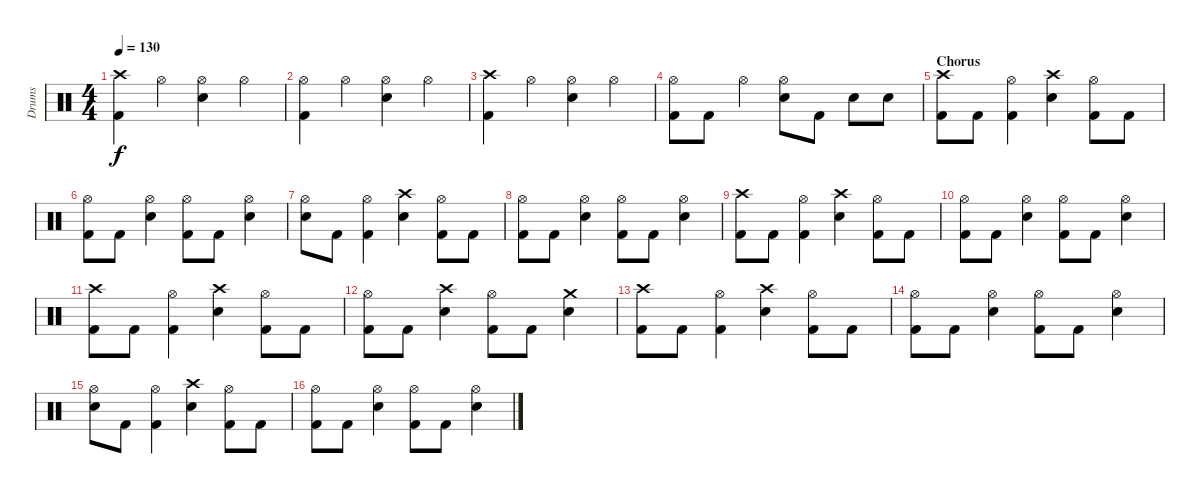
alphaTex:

\track ("Drums" "Drums") {instrument percussion}
\staff {score}
\articulation defaults
\ts (4 4)
\tempo 130
\clef neutral
\ks c
("Crash high (hit)" "Kick (hit) 2").4{dy f} "Hi-Hat (open)".4 ("Hi-Hat (open)" "Snare (hit) 2").4 "Hi-Hat (open)".4 |
("Hi-Hat (open)" "Kick (hit) 2").4 "Hi-Hat (open)".4 ("Hi-Hat (open)" "Snare (hit) 2").4 "Hi-Hat (open)".4 |
("Crash high (hit)" "Kick (hit) 2").4 "Hi-Hat (open)".4 ("Hi-Hat (open)" "Snare (hit) 2").4 "Hi-Hat (open)".4 |
("Hi-Hat (open)" "Kick (hit) 2").8 "Kick (hit) 2".8 "Hi-Hat (open)".4 ("Hi-Hat (open)" "Snare (hit) 2").8 "Kick (hit) 2".8 "Snare (hit) 2".8 "Snare (hit) 2".8 |
\section ("" "Chorus")
("Crash high (hit)" "Kick (hit) 2").8 "Kick (hit) 2".8 ("Hi-Hat (open)" "Kick (hit) 2").4 ("Crash high (hit)" "Snare (hit) 2").4 ("Hi-Hat (open)" "Kick (hit) 2").8 "Kick (hit) 2".8 |
("Hi-Hat (open)" "Kick (hit) 2").8 "Kick (hit) 2".8 ("Hi-Hat (open)" "Snare (hit) 2").4 ("Hi-Hat (open)" "Kick (hit) 2").8 "Kick (hit) 2".8 ("Hi-Hat (open)" "Snare (hit) 2").4 |
("Hi-Hat (open)" "Snare (hit) 2").8 "Kick (hit) 2".8 ("Hi-Hat (open)" "Kick (hit) 2").4 ("Crash high (hit)" "Snare (hit) 2").4 ("Hi-Hat (open)" "Kick (hit) 2").8 "Kick (hit) 2".8 |
("Hi-Hat (open)" "Kick (hit) 2").8 "Kick (hit) 2".8 ("Hi-Hat (open)" "Snare (hit) 2").4 ("Hi-Hat (open)" "Kick (hit) 2").8 "Kick (hit) 2".8 ("Hi-Hat (open)" "Snare (hit) 2").4 |
("Crash high (hit)" "Kick (hit) 2").8 "Kick (hit) 2".8 ("Hi-Hat (open)" "Kick (hit) 2").4 ("Crash high (hit)" "Snare (hit) 2").4 ("Hi-Hat (open)" "Kick (hit) 2").8 "Kick (hit) 2".8 |
("Hi-Hat (open)" "Kick (hit) 2").8 "Kick (hit) 2".8 ("Hi-Hat (open)" "Snare (hit) 2").4 ("Hi-Hat (open)" "Kick (hit) 2").8 "Kick (hit) 2".8 ("Hi-Hat (open)" "Snare (hit) 2").4 |
("Crash high (hit)" "Kick (hit) 2").8 "Kick (hit) 2".8 ("Hi-Hat (open)" "Kick (hit) 2").4 ("Crash high (hit)" "Snare (hit) 2").4 ("Hi-Hat (open)" "Kick (hit) 2").8 "Kick (hit) 2".8 |
("Hi-Hat (open)" "Kick (hit) 2").8 "Kick (hit) 2".8 ("Crash high (hit)" "Snare (hit) 2").4 ("Hi-Hat (open)" "Kick (hit) 2").8 "Kick (hit) 2".8 ("Crash medium (hit)" "Snare (hit) 2").4 |
("Crash high (hit)" "Kick (hit) 2").8 "Kick (hit) 2".8 ("Hi-Hat (open)" "Kick (hit) 2").4 ("Crash high (hit)" "Snare (hit) 2").4 ("Hi-Hat (open)" "Kick (hit) 2").8 "Kick (hit) 2".8 |
("Hi-Hat (open)" "Kick (hit) 2").8 "Kick (hit) 2".8 ("Hi-Hat (open)" "Snare (hit) 2").4 ("Hi-Hat (open)" "Kick (hit) 2").8 "Kick (hit) 2".8 ("Hi-Hat (open)" "Snare (hit) 2").4 |
("Hi-Hat (open)" "Snare (hit) 2").8 "Kick (hit) 2".8 ("Hi-Hat (open)" "Kick (hit) 2").4 ("Crash high (hit)" "Snare (hit) 2").4 ("Hi-Hat (open)" "Kick (hit) 2").8 "Kick (hit) 2".8 |
("Hi-Hat (open)" "Kick (hit) 2").8 "Kick (hit) 2".8 ("Hi-Hat (open)" "Snare (hit) 2").4 ("Hi-Hat (open)" "Kick (hit) 2").8 "Kick (hit) 2".8 ("Hi-Hat (open)" "Snare (hit) 2").4
